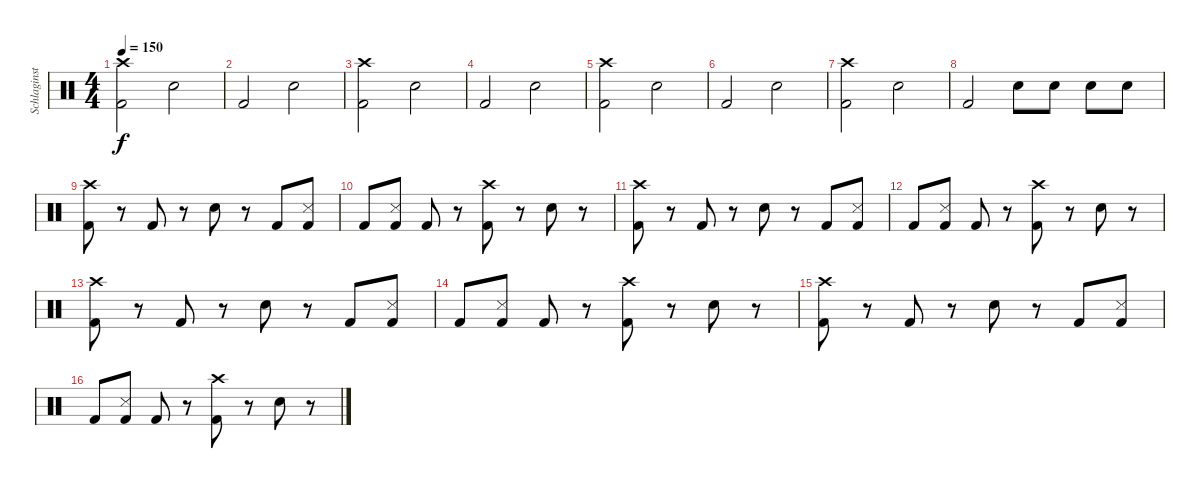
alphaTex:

\track ("Schlaginstrumente - Auswahl" "Schlaginst") {instrument percussion}
\staff {score}
\articulation defaults
\ts (4 4)
\tempo 150
\clef neutral
\ks c
("Crash high (hit)" "Kick (hit) 2").2{dy f} "Snare (hit) 2".2 |
"Kick (hit) 2".2 "Snare (hit) 2".2 |
("Crash high (hit)" "Kick (hit) 2").2 "Snare (hit) 2".2 |
"Kick (hit) 2".2 "Snare (hit) 2".2 |
("Crash high (hit)" "Kick (hit) 2").2 "Snare (hit) 2".2 |
"Kick (hit) 2".2 "Snare (hit) 2".2 |
("Crash high (hit)" "Kick (hit) 2").2 "Snare (hit) 2".2 |
"Kick (hit) 2".2 "Snare (hit) 2".8 "Snare (hit) 2".8 "Snare (hit) 2".8 "Snare (hit) 2".8 |
("Kick (hit) 2" "Crash high (hit)").8 r.8 "Kick (hit) 2".8 r.8 "Snare (hit) 2".8 r.8 "Kick (hit) 2".8 ("Metronome (hit)" "Kick (hit) 2").8 |
"Kick (hit) 2".8 ("Metronome (hit)" "Kick (hit) 2").8 "Kick (hit) 2".8 r.8 ("Kick (hit) 2" "Crash high (hit)").8 r.8 "Snare (hit) 2".8 r.8 |
("Kick (hit) 2" "Crash high (hit)").8 r.8 "Kick (hit) 2".8 r.8 "Snare (hit) 2".8 r.8 "Kick (hit) 2".8 ("Metronome (hit)" "Kick (hit) 2").8 |
"Kick (hit) 2".8 ("Metronome (hit)" "Kick (hit) 2").8 "Kick (hit) 2".8 r.8 ("Kick (hit) 2" "Crash high (hit)").8 r.8 "Snare (hit) 2".8 r.8 |
("Kick (hit) 2" "Crash high (hit)").8 r.8 "Kick (hit) 2".8 r.8 "Snare (hit) 2".8 r.8 "Kick (hit) 2".8 ("Metronome (hit)" "Kick (hit) 2").8 |
"Kick (hit) 2".8 ("Metronome (hit)" "Kick (hit) 2").8 "Kick (hit) 2".8 r.8 ("Kick (hit) 2" "Crash high (hit)").8 r.8 "Snare (hit) 2".8 r.8 |
("Kick (hit) 2" "Crash high (hit)").8 r.8 "Kick (hit) 2".8 r.8 "Snare (hit) 2".8 r.8 "Kick (hit) 2".8 ("Metronome (hit)" "Kick (hit) 2").8 |
"Kick (hit) 2".8 ("Metronome (hit)" "Kick (hit) 2").8 "Kick (hit) 2".8 r.8 ("Kick (hit) 2" "Crash high (hit)").8 r.8 "Snare (hit) 2".8 r.8
